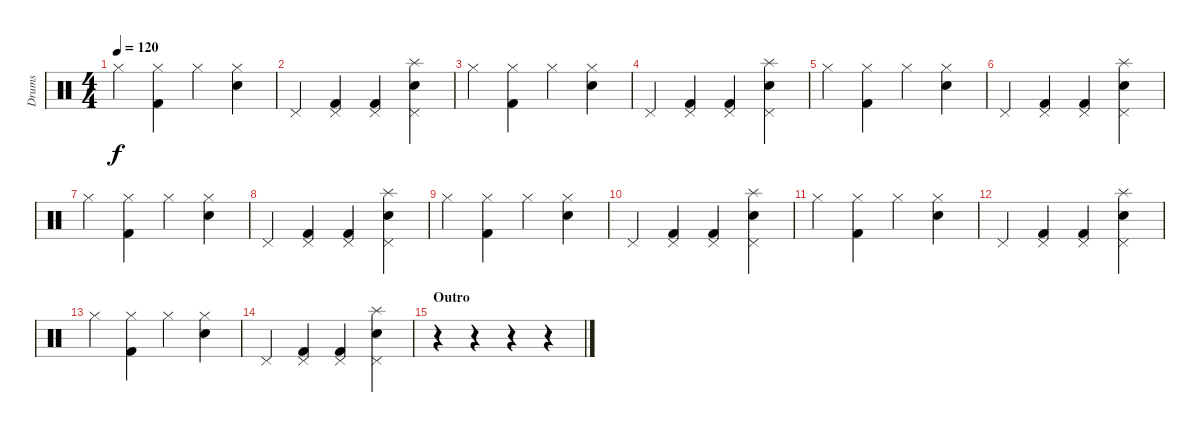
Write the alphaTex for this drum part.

\track ("Drums" "Drums") {instrument percussion}
\staff {score}
\articulation defaults
\ts (4 4)
\tempo 120
\clef neutral
\ks c "Hi-Hat (closed)".4{dy f}
("Hi-Hat (closed)" "Kick (hit) 2").4 "Hi-Hat (closed)".4 ("Hi-Hat (closed)" "Snare (hit) 2").4 |
"Pedal Hi-Hat (hit)".4 ("Pedal Hi-Hat (hit)" "Kick (hit) 2").4 ("Pedal Hi-Hat (hit)" "Kick (hit) 2").4 ("Pedal Hi-Hat (hit)" "Splash (hit)" "Snare (hit) 2").4 |
"Hi-Hat (closed)".4 ("Hi-Hat (closed)" "Kick (hit) 2").4 "Hi-Hat (closed)".4 ("Hi-Hat (closed)" "Snare (hit) 2").4 |
"Pedal Hi-Hat (hit)".4 ("Pedal Hi-Hat (hit)" "Kick (hit) 2").4 ("Pedal Hi-Hat (hit)" "Kick (hit) 2").4 ("Pedal Hi-Hat (hit)" "Splash (hit)" "Snare (hit) 2").4 |
"Hi-Hat (closed)".4 ("Hi-Hat (closed)" "Kick (hit) 2").4 "Hi-Hat (closed)".4 ("Hi-Hat (closed)" "Snare (hit) 2").4 |
"Pedal Hi-Hat (hit)".4 ("Pedal Hi-Hat (hit)" "Kick (hit) 2").4 ("Pedal Hi-Hat (hit)" "Kick (hit) 2").4 ("Pedal Hi-Hat (hit)" "Splash (hit)" "Snare (hit) 2").4 |
"Hi-Hat (closed)".4 ("Hi-Hat (closed)" "Kick (hit) 2").4 "Hi-Hat (closed)".4 ("Hi-Hat (closed)" "Snare (hit) 2").4 |
"Pedal Hi-Hat (hit)".4 ("Pedal Hi-Hat (hit)" "Kick (hit) 2").4 ("Pedal Hi-Hat (hit)" "Kick (hit) 2").4 ("Pedal Hi-Hat (hit)" "Splash (hit)" "Snare (hit) 2").4 |
"Hi-Hat (closed)".4 ("Hi-Hat (closed)" "Kick (hit) 2").4 "Hi-Hat (closed)".4 ("Hi-Hat (closed)" "Snare (hit) 2").4 |
"Pedal Hi-Hat (hit)".4 ("Pedal Hi-Hat (hit)" "Kick (hit) 2").4 ("Pedal Hi-Hat (hit)" "Kick (hit) 2").4 ("Pedal Hi-Hat (hit)" "Splash (hit)" "Snare (hit) 2").4 |
"Hi-Hat (closed)".4 ("Hi-Hat (closed)" "Kick (hit) 2").4 "Hi-Hat (closed)".4 ("Hi-Hat (closed)" "Snare (hit) 2").4 |
"Pedal Hi-Hat (hit)".4 ("Pedal Hi-Hat (hit)" "Kick (hit) 2").4 ("Pedal Hi-Hat (hit)" "Kick (hit) 2").4 ("Pedal Hi-Hat (hit)" "Splash (hit)" "Snare (hit) 2").4 |
"Hi-Hat (closed)".4 ("Hi-Hat (closed)" "Kick (hit) 2").4 "Hi-Hat (closed)".4 ("Hi-Hat (closed)" "Snare (hit) 2").4 |
"Pedal Hi-Hat (hit)".4 ("Pedal Hi-Hat (hit)" "Kick (hit) 2").4 ("Pedal Hi-Hat (hit)" "Kick (hit) 2").4 ("Pedal Hi-Hat (hit)" "Splash (hit)" "Snare (hit) 2").4 |
\section ("" "Outro")
r.4 r.4 r.4 r.4
